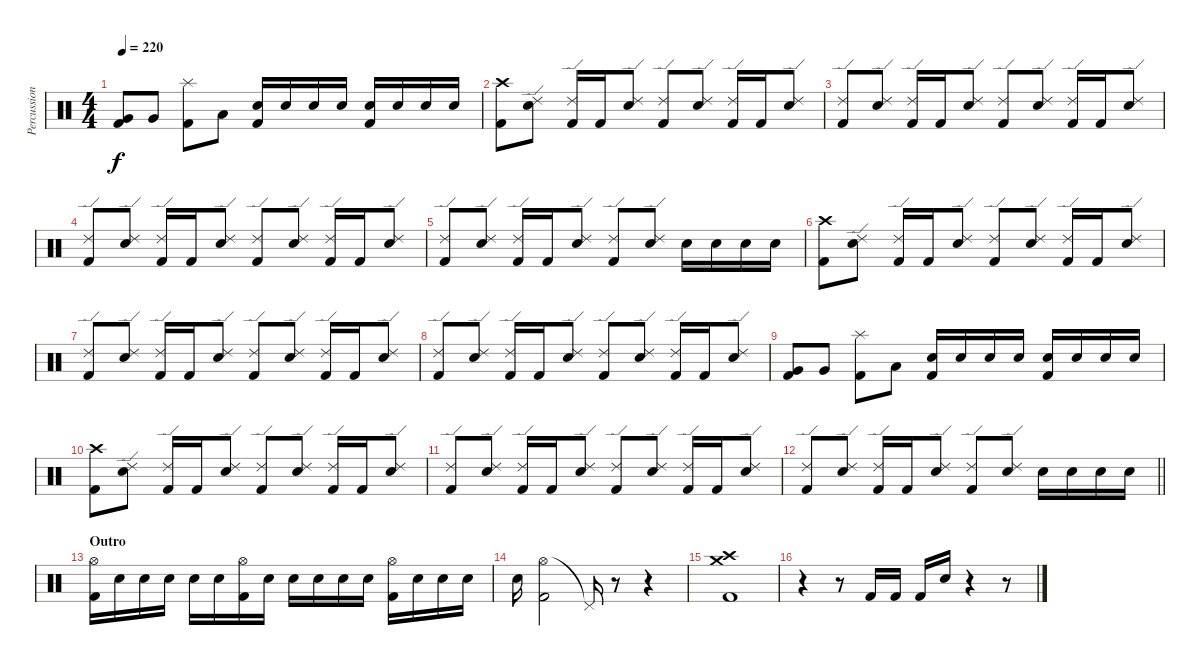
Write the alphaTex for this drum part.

\track ("Percussion" "Percussion") {instrument percussion}
\staff {score}
\articulation defaults
\ts (4 4)
\tempo 220
\clef neutral
\ks c
("Very Low Tom (hit)" "Kick (hit) 2").8{dy f} "Very Low Tom (hit)".8 ("Splash (hit)" "Kick (hit) 2").8 "Low Floor Tom (hit)".8 ("Snare (hit) 2" "Kick (hit) 2").16 "Snare (hit) 2".16 "Snare (hit) 2".16 "Snare (hit) 2".16 ("Snare (hit) 2" "Kick (hit) 2").16 "Snare (hit) 2".16 "Snare (hit) 2".16 "Snare (hit) 2".16 |
("Crash high (hit)" "Kick (hit) 2").8 ("Ride (edge) 2" "Snare (hit) 2").8 ("Ride (edge) 2" "Kick (hit) 2").16 "Kick (hit) 2".16 ("Ride (edge) 2" "Snare (hit) 2").8 ("Ride (edge) 2" "Kick (hit) 2").8 ("Ride (edge) 2" "Snare (hit) 2").8 ("Ride (edge) 2" "Kick (hit) 2").16 "Kick (hit) 2".16 ("Ride (edge) 2" "Snare (hit) 2").8 |
("Ride (edge) 2" "Kick (hit) 2").8 ("Ride (edge) 2" "Snare (hit) 2").8 ("Ride (edge) 2" "Kick (hit) 2").16 "Kick (hit) 2".16 ("Ride (edge) 2" "Snare (hit) 2").8 ("Ride (edge) 2" "Kick (hit) 2").8 ("Ride (edge) 2" "Snare (hit) 2").8 ("Ride (edge) 2" "Kick (hit) 2").16 "Kick (hit) 2".16 ("Ride (edge) 2" "Snare (hit) 2").8 |
("Ride (edge) 2" "Kick (hit) 2").8 ("Ride (edge) 2" "Snare (hit) 2").8 ("Ride (edge) 2" "Kick (hit) 2").16 "Kick (hit) 2".16 ("Ride (edge) 2" "Snare (hit) 2").8 ("Ride (edge) 2" "Kick (hit) 2").8 ("Ride (edge) 2" "Snare (hit) 2").8 ("Ride (edge) 2" "Kick (hit) 2").16 "Kick (hit) 2".16 ("Ride (edge) 2" "Snare (hit) 2").8 |
("Ride (edge) 2" "Kick (hit) 2").8 ("Ride (edge) 2" "Snare (hit) 2").8 ("Ride (edge) 2" "Kick (hit) 2").16 "Kick (hit) 2".16 ("Ride (edge) 2" "Snare (hit) 2").8 ("Ride (edge) 2" "Kick (hit) 2").8 ("Ride (edge) 2" "Snare (hit) 2").8 "Snare (hit) 2".16 "Snare (hit) 2".16 "Snare (hit) 2".16 "Snare (hit) 2".16 |
("Crash high (hit)" "Kick (hit) 2").8 ("Ride (edge) 2" "Snare (hit) 2").8 ("Ride (edge) 2" "Kick (hit) 2").16 "Kick (hit) 2".16 ("Ride (edge) 2" "Snare (hit) 2").8 ("Ride (edge) 2" "Kick (hit) 2").8 ("Ride (edge) 2" "Snare (hit) 2").8 ("Ride (edge) 2" "Kick (hit) 2").16 "Kick (hit) 2".16 ("Ride (edge) 2" "Snare (hit) 2").8 |
("Ride (edge) 2" "Kick (hit) 2").8 ("Ride (edge) 2" "Snare (hit) 2").8 ("Ride (edge) 2" "Kick (hit) 2").16 "Kick (hit) 2".16 ("Ride (edge) 2" "Snare (hit) 2").8 ("Ride (edge) 2" "Kick (hit) 2").8 ("Ride (edge) 2" "Snare (hit) 2").8 ("Ride (edge) 2" "Kick (hit) 2").16 "Kick (hit) 2".16 ("Ride (edge) 2" "Snare (hit) 2").8 |
("Ride (edge) 2" "Kick (hit) 2").8 ("Ride (edge) 2" "Snare (hit) 2").8 ("Ride (edge) 2" "Kick (hit) 2").16 "Kick (hit) 2".16 ("Ride (edge) 2" "Snare (hit) 2").8 ("Ride (edge) 2" "Kick (hit) 2").8 ("Ride (edge) 2" "Snare (hit) 2").8 ("Ride (edge) 2" "Kick (hit) 2").16 "Kick (hit) 2".16 ("Ride (edge) 2" "Snare (hit) 2").8 |
("Very Low Tom (hit)" "Kick (hit) 2").8 "Very Low Tom (hit)".8 ("Splash (hit)" "Kick (hit) 2").8 "Low Floor Tom (hit)".8 ("Snare (hit) 2" "Kick (hit) 2").16 "Snare (hit) 2".16 "Snare (hit) 2".16 "Snare (hit) 2".16 ("Snare (hit) 2" "Kick (hit) 2").16 "Snare (hit) 2".16 "Snare (hit) 2".16 "Snare (hit) 2".16 |
("Crash high (hit)" "Kick (hit) 2").8 ("Ride (edge) 2" "Snare (hit) 2").8 ("Ride (edge) 2" "Kick (hit) 2").16 "Kick (hit) 2".16 ("Ride (edge) 2" "Snare (hit) 2").8 ("Ride (edge) 2" "Kick (hit) 2").8 ("Ride (edge) 2" "Snare (hit) 2").8 ("Ride (edge) 2" "Kick (hit) 2").16 "Kick (hit) 2".16 ("Ride (edge) 2" "Snare (hit) 2").8 |
("Ride (edge) 2" "Kick (hit) 2").8 ("Ride (edge) 2" "Snare (hit) 2").8 ("Ride (edge) 2" "Kick (hit) 2").16 "Kick (hit) 2".16 ("Ride (edge) 2" "Snare (hit) 2").8 ("Ride (edge) 2" "Kick (hit) 2").8 ("Ride (edge) 2" "Snare (hit) 2").8 ("Ride (edge) 2" "Kick (hit) 2").16 "Kick (hit) 2".16 ("Ride (edge) 2" "Snare (hit) 2").8 |
\barLineRight lightlight
("Ride (edge) 2" "Kick (hit) 2").8 ("Ride (edge) 2" "Snare (hit) 2").8 ("Ride (edge) 2" "Kick (hit) 2").16 "Kick (hit) 2".16 ("Ride (edge) 2" "Snare (hit) 2").8 ("Ride (edge) 2" "Kick (hit) 2").8 ("Ride (edge) 2" "Snare (hit) 2").8 "Snare (hit) 2".16 "Snare (hit) 2".16 "Snare (hit) 2".16 "Snare (hit) 2".16 |
\section ("" "Outro")
("Hi-Hat (open)" "Kick (hit) 2").16 "Snare (hit) 2".16 "Snare (hit) 2".16 "Snare (hit) 2".16 "Snare (hit) 2".16 "Snare (hit) 2".16 ("Hi-Hat (open)" "Kick (hit) 2").16 "Snare (hit) 2".16 "Snare (hit) 2".16 "Snare (hit) 2".16 "Snare (hit) 2".16 "Snare (hit) 2".16 ("Hi-Hat (open)" "Kick (hit) 2").16 "Snare (hit) 2".16 "Snare (hit) 2".16 "Snare (hit) 2".16 |
"Snare (hit) 2".16 ("Hi-Hat (open)" "Kick (hit) 2").2 "Pedal Hi-Hat (hit)"{t}.16 r.8 r.4 |
("Crash high (hit)" "Crash medium (hit)" "Kick (hit) 2").1 |
r.4 r.8 "Kick (hit) 2".16 "Kick (hit) 2".16 "Kick (hit) 2".16 "Snare (hit) 2".16 r.4 r.8
